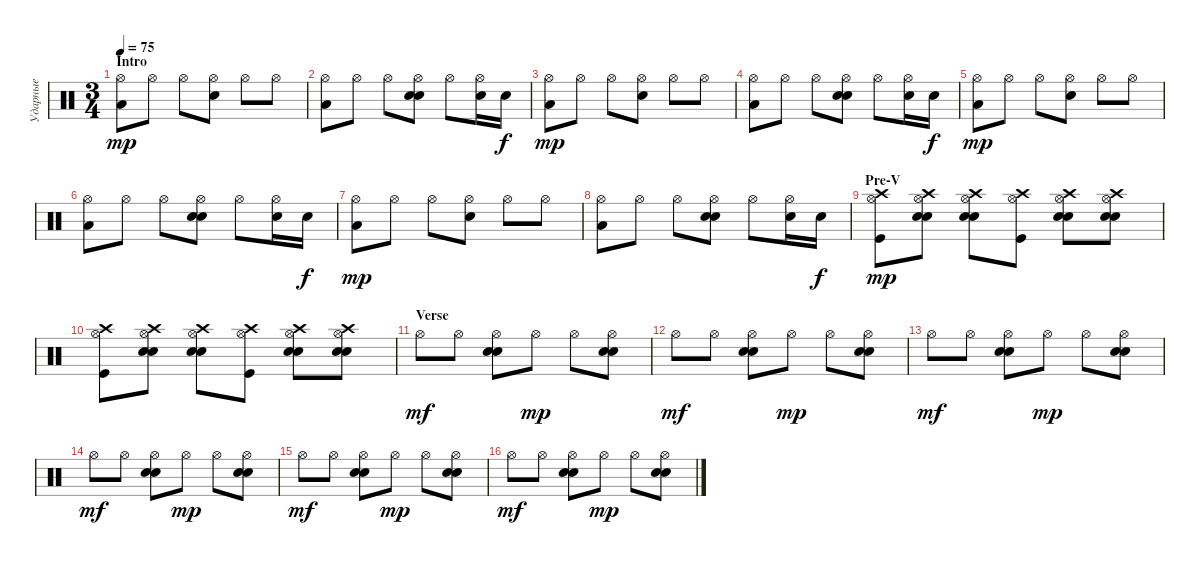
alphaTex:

\track ("Ударные" "Ударные") {instrument percussion}
\staff {score}
\articulation defaults
\ts (3 4)
\section ("" "Intro")
\tempo 75
\clef neutral
\ks c
("Hi-Hat (open)" "Low Floor Tom (hit)").8{dy mp} "Hi-Hat (open)".8 "Hi-Hat (open)".8 ("Hi-Hat (open)" "Snare (hit) 2").8 "Hi-Hat (open)".8 "Hi-Hat (open)".8 |
("Hi-Hat (open)" "Low Floor Tom (hit)").8 "Hi-Hat (open)".8 "Hi-Hat (open)".8 ("Hi-Hat (open)" "Electric Snare (hit)" "Snare (hit) 2").8 "Hi-Hat (open)".8 ("Hi-Hat (open)" "Electric Snare (hit)").16 "Electric Snare (hit)".16{dy f} |
("Hi-Hat (open)" "Low Floor Tom (hit)").8{dy mp} "Hi-Hat (open)".8 "Hi-Hat (open)".8 ("Hi-Hat (open)" "Snare (hit) 2").8 "Hi-Hat (open)".8 "Hi-Hat (open)".8 |
("Hi-Hat (open)" "Low Floor Tom (hit)").8 "Hi-Hat (open)".8 "Hi-Hat (open)".8 ("Hi-Hat (open)" "Electric Snare (hit)" "Snare (hit) 2").8 "Hi-Hat (open)".8 ("Hi-Hat (open)" "Electric Snare (hit)").16 "Electric Snare (hit)".16{dy f} |
("Hi-Hat (open)" "Low Floor Tom (hit)").8{dy mp} "Hi-Hat (open)".8 "Hi-Hat (open)".8 ("Hi-Hat (open)" "Snare (hit) 2").8 "Hi-Hat (open)".8 "Hi-Hat (open)".8 |
("Hi-Hat (open)" "Low Floor Tom (hit)").8 "Hi-Hat (open)".8 "Hi-Hat (open)".8 ("Hi-Hat (open)" "Electric Snare (hit)" "Snare (hit) 2").8 "Hi-Hat (open)".8 ("Hi-Hat (open)" "Electric Snare (hit)").16 "Electric Snare (hit)".16{dy f} |
("Hi-Hat (open)" "Low Floor Tom (hit)").8{dy mp} "Hi-Hat (open)".8 "Hi-Hat (open)".8 ("Hi-Hat (open)" "Snare (hit) 2").8 "Hi-Hat (open)".8 "Hi-Hat (open)".8 |
("Hi-Hat (open)" "Low Floor Tom (hit)").8 "Hi-Hat (open)".8 "Hi-Hat (open)".8 ("Hi-Hat (open)" "Electric Snare (hit)" "Snare (hit) 2").8 "Hi-Hat (open)".8 ("Hi-Hat (open)" "Electric Snare (hit)").16 "Electric Snare (hit)".16{dy f} |
\section ("" "Pre-V")
("Hi-Hat (open)" "Crash high (hit)" "Kick (hit)").8{dy mp} ("Hi-Hat (open)" "Crash high (hit)" "Electric Snare (hit)" "Electric Snare (hit)").8 ("Hi-Hat (open)" "Crash high (hit)" "Electric Snare (hit)" "Electric Snare (hit)").8 ("Hi-Hat (open)" "Crash high (hit)" "Kick (hit)").8 ("Hi-Hat (open)" "Crash high (hit)" "Electric Snare (hit)" "Electric Snare (hit)").8 ("Hi-Hat (open)" "Crash high (hit)" "Electric Snare (hit)" "Electric Snare (hit)").8 |
("Hi-Hat (open)" "Crash high (hit)" "Kick (hit)").8 ("Hi-Hat (open)" "Crash high (hit)" "Electric Snare (hit)" "Electric Snare (hit)").8 ("Hi-Hat (open)" "Crash high (hit)" "Electric Snare (hit)" "Electric Snare (hit)").8 ("Hi-Hat (open)" "Crash high (hit)" "Kick (hit)").8 ("Hi-Hat (open)" "Crash high (hit)" "Electric Snare (hit)" "Electric Snare (hit)").8 ("Hi-Hat (open)" "Crash high (hit)" "Electric Snare (hit)" "Electric Snare (hit)").8 |
\section ("" "Verse")
"Hi-Hat (open)".8{dy mf} "Hi-Hat (open)".8 ("Hi-Hat (open)" "Electric Snare (hit)" "Electric Snare (hit)").8 "Hi-Hat (open)".8{dy mp} "Hi-Hat (open)".8 ("Hi-Hat (open)" "Electric Snare (hit)" "Electric Snare (hit)").8 |
"Hi-Hat (open)".8{dy mf} "Hi-Hat (open)".8 ("Hi-Hat (open)" "Electric Snare (hit)" "Electric Snare (hit)").8 "Hi-Hat (open)".8{dy mp} "Hi-Hat (open)".8 ("Hi-Hat (open)" "Electric Snare (hit)" "Electric Snare (hit)").8 |
"Hi-Hat (open)".8{dy mf} "Hi-Hat (open)".8 ("Hi-Hat (open)" "Electric Snare (hit)" "Electric Snare (hit)").8 "Hi-Hat (open)".8{dy mp} "Hi-Hat (open)".8 ("Hi-Hat (open)" "Electric Snare (hit)" "Electric Snare (hit)").8 |
"Hi-Hat (open)".8{dy mf} "Hi-Hat (open)".8 ("Hi-Hat (open)" "Electric Snare (hit)" "Electric Snare (hit)").8 "Hi-Hat (open)".8{dy mp} "Hi-Hat (open)".8 ("Hi-Hat (open)" "Electric Snare (hit)" "Electric Snare (hit)").8 |
"Hi-Hat (open)".8{dy mf} "Hi-Hat (open)".8 ("Hi-Hat (open)" "Electric Snare (hit)" "Electric Snare (hit)").8 "Hi-Hat (open)".8{dy mp} "Hi-Hat (open)".8 ("Hi-Hat (open)" "Electric Snare (hit)" "Electric Snare (hit)").8 |
"Hi-Hat (open)".8{dy mf} "Hi-Hat (open)".8 ("Hi-Hat (open)" "Electric Snare (hit)" "Electric Snare (hit)").8 "Hi-Hat (open)".8{dy mp} "Hi-Hat (open)".8 ("Hi-Hat (open)" "Electric Snare (hit)" "Electric Snare (hit)").8
